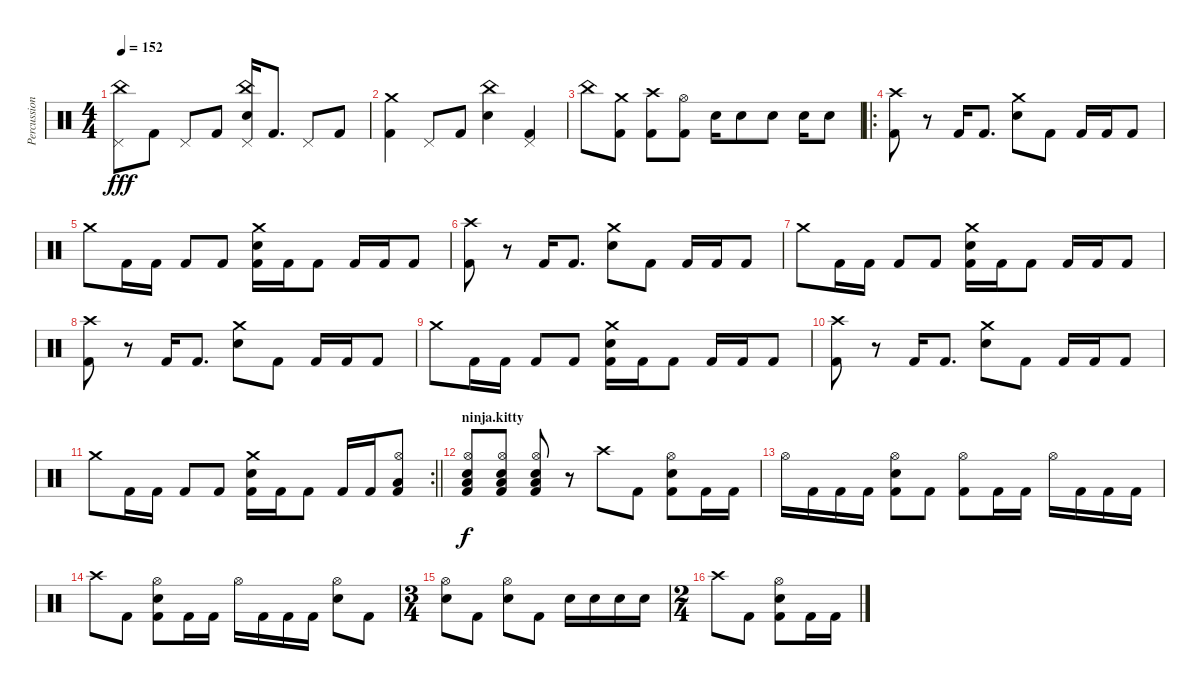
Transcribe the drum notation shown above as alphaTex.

\track ("Percussion" "Percussion") {instrument percussion}
\staff {score}
\articulation defaults
\ts (4 4)
\tempo 152
\clef neutral
\ks c
("Pedal Hi-Hat (hit)" "China (hit)").8{dy fff} "Kick (hit) 2".8 "Pedal Hi-Hat (hit)".8 "Kick (hit) 2".8 ("Electric Snare (hit)" "China (hit)" "Pedal Hi-Hat (hit)").16 "Kick (hit) 2".8{d} "Pedal Hi-Hat (hit)".8 "Kick (hit) 2".8 |
("Crash medium (hit)" "Kick (hit) 2").4 "Pedal Hi-Hat (hit)".8 "Kick (hit) 2".8 ("Electric Snare (hit)" "China (hit)").4 ("Pedal Hi-Hat (hit)" "Kick (hit) 2").4 |
"China (hit)".8 ("Kick (hit) 2" "Crash medium (hit)").8 ("Kick (hit) 2" "Crash high (hit)").8 ("Kick (hit) 2" "Hi-Hat (open)").8 "Electric Snare (hit)".16 "Electric Snare (hit)".8 "Electric Snare (hit)".8 "Electric Snare (hit)".16 "Electric Snare (hit)".8 |
\ro
("Crash high (hit)" "Kick (hit) 2").8 r.8 "Kick (hit) 2".16 "Kick (hit) 2".8{d} ("Crash medium (hit)" "Electric Snare (hit)").8 "Kick (hit) 2".8 "Kick (hit) 2".16 "Kick (hit) 2".16 "Kick (hit) 2".8 |
"Crash medium (hit)".8 "Kick (hit) 2".16 "Kick (hit) 2".16 "Kick (hit) 2".8 "Kick (hit) 2".8 ("Kick (hit) 2" "Electric Snare (hit)" "Crash medium (hit)").16 "Kick (hit) 2".16 "Kick (hit) 2".8 "Kick (hit) 2".16 "Kick (hit) 2".16 "Kick (hit) 2".8 |
("Crash high (hit)" "Kick (hit) 2").8 r.8 "Kick (hit) 2".16 "Kick (hit) 2".8{d} ("Crash medium (hit)" "Electric Snare (hit)").8 "Kick (hit) 2".8 "Kick (hit) 2".16 "Kick (hit) 2".16 "Kick (hit) 2".8 |
"Crash medium (hit)".8 "Kick (hit) 2".16 "Kick (hit) 2".16 "Kick (hit) 2".8 "Kick (hit) 2".8 ("Kick (hit) 2" "Electric Snare (hit)" "Crash medium (hit)").16 "Kick (hit) 2".16 "Kick (hit) 2".8 "Kick (hit) 2".16 "Kick (hit) 2".16 "Kick (hit) 2".8 |
("Crash high (hit)" "Kick (hit) 2").8 r.8 "Kick (hit) 2".16 "Kick (hit) 2".8{d} ("Crash medium (hit)" "Electric Snare (hit)").8 "Kick (hit) 2".8 "Kick (hit) 2".16 "Kick (hit) 2".16 "Kick (hit) 2".8 |
"Crash medium (hit)".8 "Kick (hit) 2".16 "Kick (hit) 2".16 "Kick (hit) 2".8 "Kick (hit) 2".8 ("Kick (hit) 2" "Electric Snare (hit)" "Crash medium (hit)").16 "Kick (hit) 2".16 "Kick (hit) 2".8 "Kick (hit) 2".16 "Kick (hit) 2".16 "Kick (hit) 2".8 |
("Crash high (hit)" "Kick (hit) 2").8 r.8 "Kick (hit) 2".16 "Kick (hit) 2".8{d} ("Crash medium (hit)" "Electric Snare (hit)").8 "Kick (hit) 2".8 "Kick (hit) 2".16 "Kick (hit) 2".16 "Kick (hit) 2".8 |
\rc 2
\barLineRight lightlight "Crash medium (hit)".8 "Kick (hit) 2".16 "Kick (hit) 2".16 "Kick (hit) 2".8 "Kick (hit) 2".8
("Kick (hit) 2" "Electric Snare (hit)" "Crash medium (hit)").16 "Kick (hit) 2".16 "Kick (hit) 2".8 "Kick (hit) 2".16 "Kick (hit) 2".16 ("Kick (hit) 2" "Low Floor Tom (hit)" "Hi-Hat (open)").8 |
\section ("" "ninja.kitty")
("Kick (hit) 2" "Electric Snare (hit)" "Low Floor Tom (hit)" "Hi-Hat (open)").8{dy f} ("Kick (hit) 2" "Electric Snare (hit)" "Low Floor Tom (hit)" "Hi-Hat (open)").8 ("Kick (hit) 2" "Electric Snare (hit)" "Low Floor Tom (hit)" "Hi-Hat (open)").8 r.8 "Crash high (hit)".8 "Kick (hit) 2".8 ("Kick (hit) 2" "Electric Snare (hit)" "Hi-Hat (open)").8 "Kick (hit) 2".16 "Kick (hit) 2".16 |
"Hi-Hat (open)".16 "Kick (hit) 2".16 "Kick (hit) 2".16 "Kick (hit) 2".16 ("Kick (hit) 2" "Electric Snare (hit)" "Hi-Hat (open)").8 "Kick (hit) 2".8 ("Kick (hit) 2" "Hi-Hat (open)").8 "Kick (hit) 2".16 "Kick (hit) 2".16 "Hi-Hat (open)".16 "Kick (hit) 2".16 "Kick (hit) 2".16 "Kick (hit) 2".16 |
"Crash high (hit)".8 "Kick (hit) 2".8 ("Kick (hit) 2" "Electric Snare (hit)" "Hi-Hat (open)").8 "Kick (hit) 2".16 "Kick (hit) 2".16 "Hi-Hat (open)".16 "Kick (hit) 2".16 "Kick (hit) 2".16 "Kick (hit) 2".16 ("Electric Snare (hit)" "Hi-Hat (open)").8 "Kick (hit) 2".8 |
\ts (3 4)
("Electric Snare (hit)" "Hi-Hat (open)").8 "Kick (hit) 2".8 ("Electric Snare (hit)" "Hi-Hat (open)").8 "Kick (hit) 2".8 "Electric Snare (hit)".16 "Electric Snare (hit)".16 "Electric Snare (hit)".16 "Electric Snare (hit)".16 |
\ts (2 4)
"Crash high (hit)".8 "Kick (hit) 2".8 ("Kick (hit) 2" "Electric Snare (hit)" "Hi-Hat (open)").8 "Kick (hit) 2".16 "Kick (hit) 2".16
